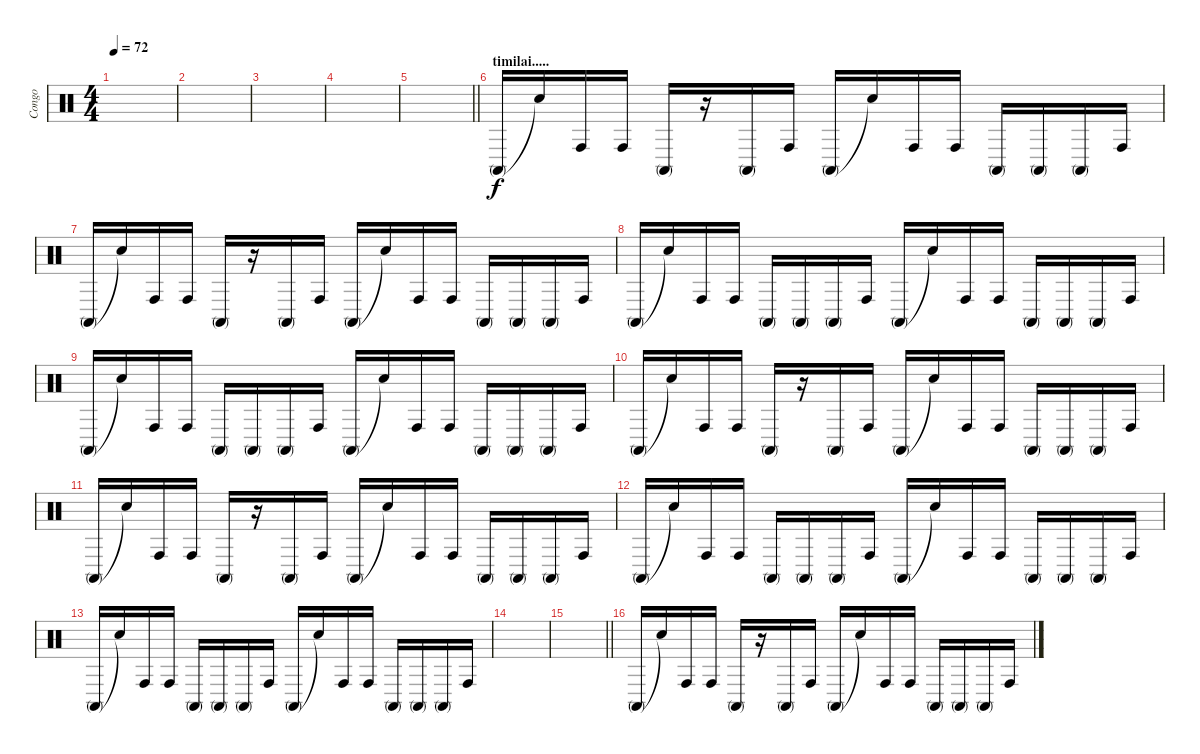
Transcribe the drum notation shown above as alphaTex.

\track ("Congo" "Congo") {instrument percussion}
\staff {score}
\articulation defaults
\ts (4 4)
\tempo 72
\clef neutral
\ks c
|
|
|
|
\barLineRight lightlight
|
\section ("" "timilai.....")
"Conga high (mute)".16 "Snare (hit)"{t}.16 "Conga high (hit)".16 "Conga high (hit)".16 "Conga high (mute)".16 r.16 "Conga high (mute)".16 "Conga high (hit)".16 "Conga high (mute)".16 "Snare (hit)"{t}.16 "Conga high (hit)".16 "Conga high (hit)".16 "Conga high (mute)".16 "Conga high (mute)".16 "Conga high (mute)".16 "Conga high (hit)".16 |
"Conga high (mute)".16 "Snare (hit)"{t}.16 "Conga high (hit)".16 "Conga high (hit)".16 "Conga high (mute)".16 r.16 "Conga high (mute)".16 "Conga high (hit)".16 "Conga high (mute)".16 "Snare (hit)"{t}.16 "Conga high (hit)".16 "Conga high (hit)".16 "Conga high (mute)".16 "Conga high (mute)".16 "Conga high (mute)".16 "Conga high (hit)".16 |
"Conga high (mute)".16 "Snare (hit)"{t}.16 "Conga high (hit)".16 "Conga high (hit)".16 "Conga high (mute)".16 "Conga high (mute)".16 "Conga high (mute)".16 "Conga high (hit)".16 "Conga high (mute)".16 "Snare (hit)"{t}.16 "Conga high (hit)".16 "Conga high (hit)".16 "Conga high (mute)".16 "Conga high (mute)".16 "Conga high (mute)".16 "Conga high (hit)".16 |
"Conga high (mute)".16 "Snare (hit)"{t}.16 "Conga high (hit)".16 "Conga high (hit)".16 "Conga high (mute)".16 "Conga high (mute)".16 "Conga high (mute)".16 "Conga high (hit)".16 "Conga high (mute)".16 "Snare (hit)"{t}.16 "Conga high (hit)".16 "Conga high (hit)".16 "Conga high (mute)".16 "Conga high (mute)".16 "Conga high (mute)".16 "Conga high (hit)".16 |
"Conga high (mute)".16 "Snare (hit)"{t}.16 "Conga high (hit)".16 "Conga high (hit)".16 "Conga high (mute)".16 r.16 "Conga high (mute)".16 "Conga high (hit)".16 "Conga high (mute)".16 "Snare (hit)"{t}.16 "Conga high (hit)".16 "Conga high (hit)".16 "Conga high (mute)".16 "Conga high (mute)".16 "Conga high (mute)".16 "Conga high (hit)".16 |
"Conga high (mute)".16 "Snare (hit)"{t}.16 "Conga high (hit)".16 "Conga high (hit)".16 "Conga high (mute)".16 r.16 "Conga high (mute)".16 "Conga high (hit)".16 "Conga high (mute)".16 "Snare (hit)"{t}.16 "Conga high (hit)".16 "Conga high (hit)".16 "Conga high (mute)".16 "Conga high (mute)".16 "Conga high (mute)".16 "Conga high (hit)".16 |
"Conga high (mute)".16 "Snare (hit)"{t}.16 "Conga high (hit)".16 "Conga high (hit)".16 "Conga high (mute)".16 "Conga high (mute)".16 "Conga high (mute)".16 "Conga high (hit)".16 "Conga high (mute)".16 "Snare (hit)"{t}.16 "Conga high (hit)".16 "Conga high (hit)".16 "Conga high (mute)".16 "Conga high (mute)".16 "Conga high (mute)".16 "Conga high (hit)".16 |
"Conga high (mute)".16 "Snare (hit)"{t}.16 "Conga high (hit)".16 "Conga high (hit)".16 "Conga high (mute)".16 "Conga high (mute)".16 "Conga high (mute)".16 "Conga high (hit)".16 "Conga high (mute)".16 "Snare (hit)"{t}.16 "Conga high (hit)".16 "Conga high (hit)".16 "Conga high (mute)".16 "Conga high (mute)".16 "Conga high (mute)".16 "Conga high (hit)".16 |
|
\barLineRight lightlight
|
"Conga high (mute)".16 "Snare (hit)"{t}.16 "Conga high (hit)".16 "Conga high (hit)".16 "Conga high (mute)".16 r.16 "Conga high (mute)".16 "Conga high (hit)".16 "Conga high (mute)".16 "Snare (hit)"{t}.16 "Conga high (hit)".16 "Conga high (hit)".16 "Conga high (mute)".16 "Conga high (mute)".16 "Conga high (mute)".16 "Conga high (hit)".16
